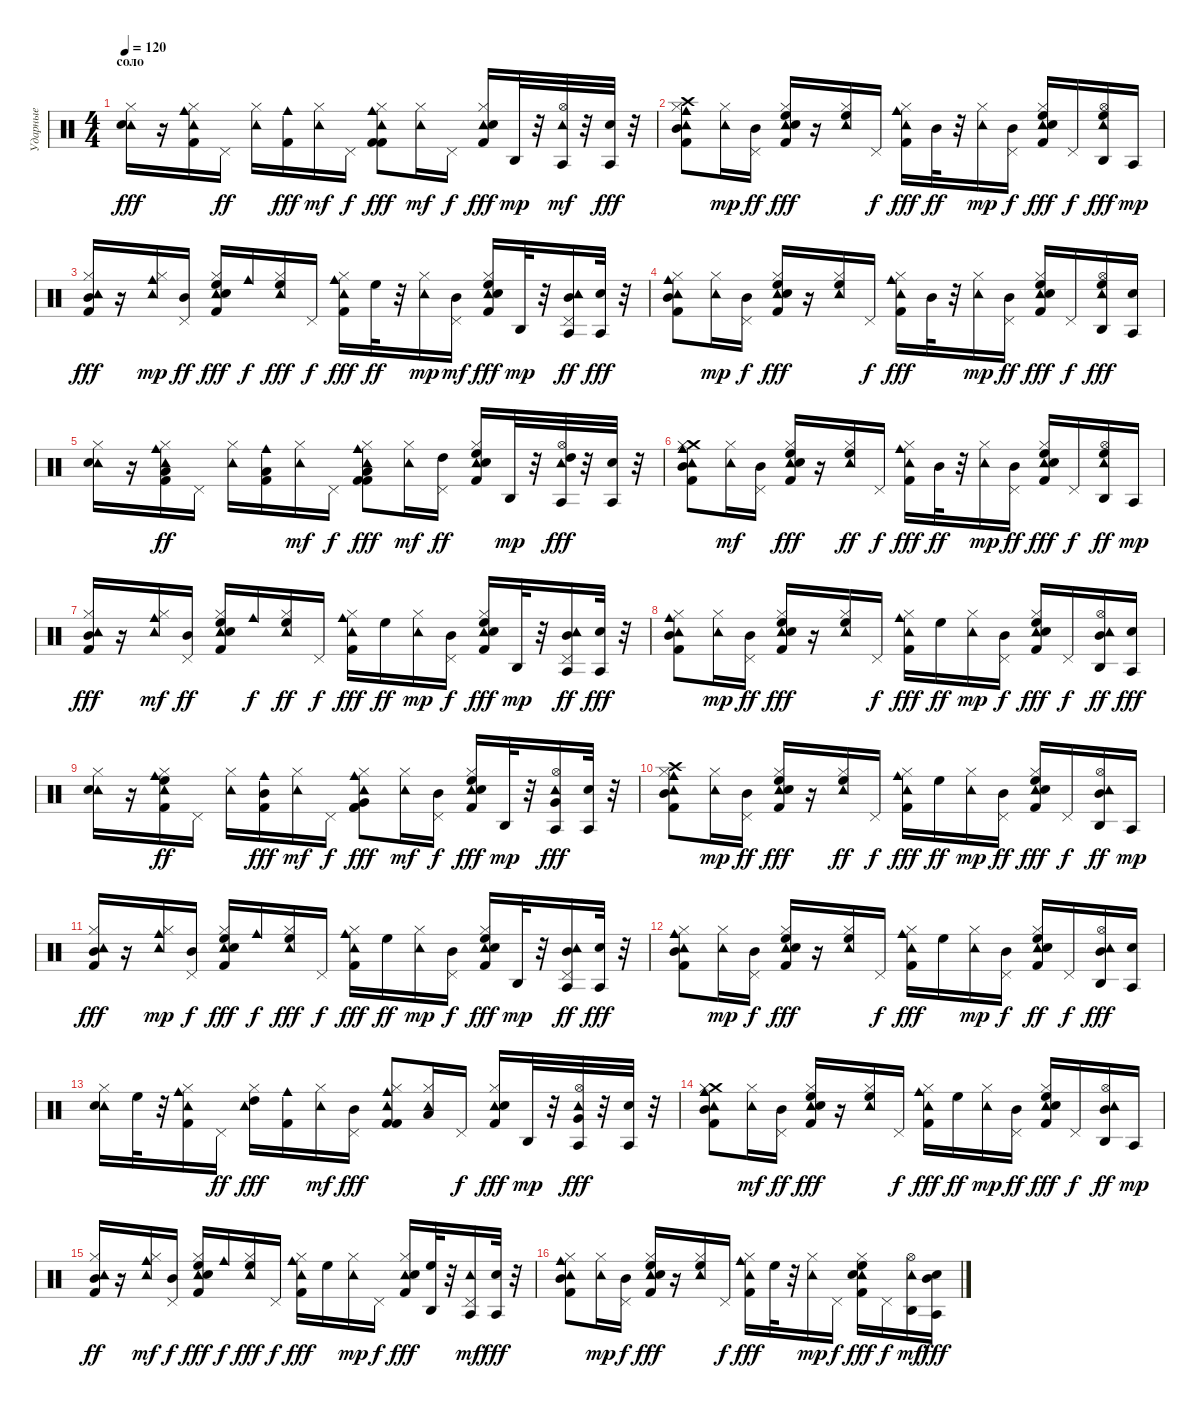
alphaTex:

\track ("Ударные" "Ударные") {instrument percussion}
\staff {score}
\articulation defaults
\ts (4 4)
\section ("" "соло")
\tempo 120
\clef neutral
\ks c
("Tambourine (hit)" "Electric Snare (hit)" "Hi-Hat (closed)").16{dy fff} r.16 ("Tambourine (hit)" "Cowbell medium (hit)" "Hi-Hat (closed)" "Kick (hit) 2").16 "Pedal Hi-Hat (hit)".16{dy ff} ("Tambourine (hit)" "Hi-Hat (closed)").16 ("Cowbell medium (hit)" "Kick (hit) 2").16{dy fff} ("Tambourine (hit)" "Hi-Hat (closed)").16{dy mf} "Pedal Hi-Hat (hit)".16{dy f} ("Tambourine (hit)" "Cowbell medium (hit)" "Kick (hit) 2" "Hi-Hat (closed)" "Kick (hit) 2").8{dy fff} ("Tambourine (hit)" "Hi-Hat (closed)").16{dy mf} "Pedal Hi-Hat (hit)".16{dy f} ("Tambourine (hit)" "Hi-Hat (closed)" "Kick (hit) 2" "Electric Snare (hit)").16{dy fff} "Agogo high (hit)".32{dy mp} r.32 ("Agogo tow (hit)" "Tambourine (hit)" "Hi-Hat (open)").32{dy mf} r.32 ("Agogo tow (hit)" "Electric Snare (hit)").32{dy fff} r.32 |
("Tambourine (hit)" "Cowbell medium (hit)" "Mid Tom (hit)" "Crash high (hit)" "Hi-Hat (closed)" "Kick (hit) 2").8 ("Tambourine (hit)" "Hi-Hat (closed)").16{dy mp} ("Pedal Hi-Hat (hit)" "Mid Tom (hit)").16{dy ff} ("Tambourine (hit)" "High Floor Tom (hit)" "Electric Snare (hit)" "Kick (hit) 2" "Hi-Hat (closed)").16{dy fff} r.16 ("Tambourine (hit)" "High Floor Tom (hit)" "Hi-Hat (closed)").16 "Pedal Hi-Hat (hit)".16{dy f} ("Tambourine (hit)" "Cowbell medium (hit)" "Kick (hit) 2" "Hi-Hat (closed)").16{dy fff} "Mid Tom (hit)".32{dy ff} r.32 ("Tambourine (hit)" "Hi-Hat (closed)").16{dy mp} ("Pedal Hi-Hat (hit)" "Mid Tom (hit)").16{dy f} ("Tambourine (hit)" "High Floor Tom (hit)" "Kick (hit) 2" "Electric Snare (hit)" "Hi-Hat (closed)").16{dy fff} "Pedal Hi-Hat (hit)".16{dy f} ("Agogo high (hit)" "Tambourine (hit)" "High Floor Tom (hit)" "Hi-Hat (open)").16{dy fff} "Agogo tow (hit)".16{dy mp} |
("Tambourine (hit)" "Mid Tom (hit)" "Kick (hit) 2" "Hi-Hat (closed)").16{dy fff} r.16 ("Cowbell medium (hit)" "Tambourine (hit)" "Hi-Hat (closed)").16{dy mp} ("Pedal Hi-Hat (hit)" "Mid Tom (hit)").16{dy ff} ("Tambourine (hit)" "Hi-Hat (closed)" "Kick (hit) 2" "Electric Snare (hit)" "High Floor Tom (hit)").16{dy fff} "Cowbell medium (hit)".16{dy f} ("Tambourine (hit)" "Hi-Hat (closed)" "High Floor Tom (hit)").16{dy fff} "Pedal Hi-Hat (hit)".16{dy f} ("Cowbell medium (hit)" "Tambourine (hit)" "Kick (hit) 2" "Hi-Hat (closed)").16{dy fff} "High Floor Tom (hit)".32{dy ff} r.32 ("Tambourine (hit)" "Hi-Hat (closed)").16{dy mp} ("Pedal Hi-Hat (hit)" "Mid Tom (hit)").16{dy mf} ("Tambourine (hit)" "Electric Snare (hit)" "Kick (hit) 2" "Hi-Hat (closed)" "High Floor Tom (hit)").16{dy fff} "Agogo high (hit)".32{dy mp} r.32 ("Agogo tow (hit)" "Tambourine (hit)" "Pedal Hi-Hat (hit)" "Mid Tom (hit)").16{dy ff} ("Agogo tow (hit)" "Electric Snare (hit)").32{dy fff} r.32 |
("Cowbell medium (hit)" "Tambourine (hit)" "Kick (hit) 2" "Hi-Hat (closed)" "Mid Tom (hit)").8 ("Tambourine (hit)" "Hi-Hat (closed)").16{dy mp} ("Mid Tom (hit)" "Pedal Hi-Hat (hit)").16{dy f} ("Tambourine (hit)" "High Floor Tom (hit)" "Electric Snare (hit)" "Kick (hit) 2" "Hi-Hat (closed)").16{dy fff} r.16 ("Tambourine (hit)" "Hi-Hat (closed)" "High Floor Tom (hit)").16 "Pedal Hi-Hat (hit)".16{dy f} ("Cowbell medium (hit)" "Tambourine (hit)" "Hi-Hat (closed)" "Kick (hit) 2").16{dy fff} "Mid Tom (hit)".32 r.32 ("Tambourine (hit)" "Hi-Hat (closed)").16{dy mp} ("Pedal Hi-Hat (hit)" "Mid Tom (hit)").16{dy ff} ("Tambourine (hit)" "Kick (hit) 2" "Electric Snare (hit)" "Hi-Hat (closed)" "High Floor Tom (hit)").16{dy fff} "Pedal Hi-Hat (hit)".16{dy f} ("Agogo high (hit)" "Tambourine (hit)" "Hi-Hat (open)" "High Floor Tom (hit)").16{dy fff} ("Agogo tow (hit)" "Electric Snare (hit)").16 |
("Tambourine (hit)" "Electric Snare (hit)" "Hi-Hat (closed)").16 r.16 ("Tambourine (hit)" "Cowbell medium (hit)" "Hi-Hat (closed)" "Kick (hit) 2" "Low Tom (hit)").16{dy ff} "Pedal Hi-Hat (hit)".16 ("Tambourine (hit)" "Hi-Hat (closed)").16 ("Cowbell medium (hit)" "Kick (hit) 2" "Low Tom (hit)").16 ("Tambourine (hit)" "Hi-Hat (closed)").16{dy mf} "Pedal Hi-Hat (hit)".16{dy f} ("Tambourine (hit)" "Cowbell medium (hit)" "Kick (hit) 2" "Hi-Hat (closed)" "Kick (hit) 2" "Low Tom (hit)").8{dy fff} ("Tambourine (hit)" "Hi-Hat (closed)").16{dy mf} ("Pedal Hi-Hat (hit)" "High Tom (hit)").16{dy ff} ("Tambourine (hit)" "Hi-Hat (closed)" "Kick (hit) 2" "Electric Snare (hit)" "High Floor Tom (hit)").16 "Agogo high (hit)".32{dy mp} r.32 ("Agogo tow (hit)" "Tambourine (hit)" "Hi-Hat (open)" "High Tom (hit)").32{dy fff} r.32 ("Agogo tow (hit)" "Electric Snare (hit)").32 r.32 |
("Tambourine (hit)" "Cowbell medium (hit)" "Mid Tom (hit)" "Crash medium (hit)" "Hi-Hat (closed)" "Kick (hit) 2").8 ("Tambourine (hit)" "Hi-Hat (closed)").16{dy mf} ("Mid Tom (hit)" "Pedal Hi-Hat (hit)").16 ("Tambourine (hit)" "High Floor Tom (hit)" "Electric Snare (hit)" "Kick (hit) 2" "Hi-Hat (closed)").16{dy fff} r.16 ("Tambourine (hit)" "High Floor Tom (hit)" "Hi-Hat (closed)").16{dy ff} "Pedal Hi-Hat (hit)".16{dy f} ("Tambourine (hit)" "Cowbell medium (hit)" "Kick (hit) 2" "Hi-Hat (closed)").16{dy fff} "Mid Tom (hit)".32{dy ff} r.32 ("Tambourine (hit)" "Hi-Hat (closed)").16{dy mp} ("Mid Tom (hit)" "Pedal Hi-Hat (hit)").16{dy ff} ("Tambourine (hit)" "High Floor Tom (hit)" "Kick (hit) 2" "Electric Snare (hit)" "Hi-Hat (closed)").16{dy fff} "Pedal Hi-Hat (hit)".16{dy f} ("Agogo high (hit)" "Tambourine (hit)" "Hi-Hat (open)" "High Floor Tom (hit)").16{dy ff} "Agogo tow (hit)".16{dy mp} |
("Tambourine (hit)" "Mid Tom (hit)" "Kick (hit) 2" "Hi-Hat (closed)").16{dy fff} r.16 ("Cowbell medium (hit)" "Tambourine (hit)" "Hi-Hat (closed)").16{dy mf} ("Pedal Hi-Hat (hit)" "Mid Tom (hit)").16{dy ff} ("Tambourine (hit)" "Hi-Hat (closed)" "Kick (hit) 2" "Electric Snare (hit)" "High Floor Tom (hit)").16 "Cowbell medium (hit)".16{dy f} ("Tambourine (hit)" "Hi-Hat (closed)" "High Floor Tom (hit)").16{dy ff} "Pedal Hi-Hat (hit)".16{dy f} ("Cowbell medium (hit)" "Tambourine (hit)" "Kick (hit) 2" "Hi-Hat (closed)").16{dy fff} "High Floor Tom (hit)".16{dy ff} ("Tambourine (hit)" "Hi-Hat (closed)").16{dy mp} ("Pedal Hi-Hat (hit)" "Mid Tom (hit)").16{dy f} ("Tambourine (hit)" "High Floor Tom (hit)" "Electric Snare (hit)" "Kick (hit) 2" "Hi-Hat (closed)").16{dy fff} "Agogo high (hit)".32{dy mp} r.32 ("Agogo tow (hit)" "Tambourine (hit)" "Mid Tom (hit)" "Pedal Hi-Hat (hit)").16{dy ff} ("Agogo tow (hit)" "Electric Snare (hit)").32{dy fff} r.32 |
("Tambourine (hit)" "Cowbell medium (hit)" "Mid Tom (hit)" "Kick (hit) 2" "Hi-Hat (closed)").8 ("Tambourine (hit)" "Hi-Hat (closed)").16{dy mp} ("Mid Tom (hit)" "Pedal Hi-Hat (hit)").16{dy ff} ("Tambourine (hit)" "High Floor Tom (hit)" "Electric Snare (hit)" "Kick (hit) 2" "Hi-Hat (closed)").16{dy fff} r.16 ("Tambourine (hit)" "High Floor Tom (hit)" "Hi-Hat (closed)").16 "Pedal Hi-Hat (hit)".16{dy f} ("Tambourine (hit)" "Cowbell medium (hit)" "Hi-Hat (closed)" "Kick (hit) 2").16{dy fff} "High Floor Tom (hit)".16{dy ff} ("Tambourine (hit)" "Hi-Hat (closed)").16{dy mp} ("Pedal Hi-Hat (hit)" "Mid Tom (hit)").16{dy f} ("Tambourine (hit)" "Kick (hit) 2" "Electric Snare (hit)" "Hi-Hat (closed)" "High Floor Tom (hit)").16{dy fff} "Pedal Hi-Hat (hit)".16{dy f} ("Agogo high (hit)" "Tambourine (hit)" "Hi-Hat (open)" "Mid Tom (hit)").16{dy ff} ("Agogo tow (hit)" "Electric Snare (hit)").16{dy fff} |
("Tambourine (hit)" "Electric Snare (hit)" "Hi-Hat (closed)").16 r.16 ("Tambourine (hit)" "Cowbell medium (hit)" "Hi-Hat (closed)" "Kick (hit) 2" "High Floor Tom (hit)").16{dy ff} "Pedal Hi-Hat (hit)".16 ("Tambourine (hit)" "Hi-Hat (closed)").16 ("Cowbell medium (hit)" "Kick (hit) 2" "Mid Tom (hit)").16{dy fff} ("Tambourine (hit)" "Hi-Hat (closed)").16{dy mf} "Pedal Hi-Hat (hit)".16{dy f} ("Tambourine (hit)" "Cowbell medium (hit)" "Kick (hit) 2" "Hi-Hat (closed)" "Kick (hit) 2" "Very Low Tom (hit)").8{dy fff} ("Tambourine (hit)" "Hi-Hat (closed)").16{dy mf} ("Mid Tom (hit)" "Pedal Hi-Hat (hit)").16{dy f} ("Tambourine (hit)" "High Floor Tom (hit)" "Hi-Hat (closed)" "Kick (hit) 2" "Electric Snare (hit)").16{dy fff} "Agogo high (hit)".32{dy mp} r.32 ("Agogo tow (hit)" "Tambourine (hit)" "Very Low Tom (hit)" "Hi-Hat (open)").16{dy fff} ("Agogo tow (hit)" "Electric Snare (hit)").32 r.32 |
("Tambourine (hit)" "Cowbell medium (hit)" "Mid Tom (hit)" "Crash high (hit)" "Hi-Hat (closed)" "Kick (hit) 2").8 ("Tambourine (hit)" "Hi-Hat (closed)").16{dy mp} ("Pedal Hi-Hat (hit)" "Mid Tom (hit)").16{dy ff} ("Tambourine (hit)" "High Floor Tom (hit)" "Electric Snare (hit)" "Kick (hit) 2" "Hi-Hat (closed)").16{dy fff} r.16 ("Tambourine (hit)" "High Floor Tom (hit)" "Hi-Hat (closed)").16{dy ff} "Pedal Hi-Hat (hit)".16{dy f} ("Tambourine (hit)" "Cowbell medium (hit)" "Kick (hit) 2" "Hi-Hat (closed)").16{dy fff} "High Floor Tom (hit)".16{dy ff} ("Tambourine (hit)" "Hi-Hat (closed)").16{dy mp} ("Pedal Hi-Hat (hit)" "Mid Tom (hit)").16{dy ff} ("Tambourine (hit)" "Kick (hit) 2" "Electric Snare (hit)" "Hi-Hat (closed)" "High Floor Tom (hit)").16{dy fff} "Pedal Hi-Hat (hit)".16{dy f} ("Agogo high (hit)" "Tambourine (hit)" "Hi-Hat (open)" "Mid Tom (hit)").16{dy ff} "Agogo tow (hit)".16{dy mp} |
("Tambourine (hit)" "Mid Tom (hit)" "Kick (hit) 2" "Hi-Hat (closed)").16{dy fff} r.16 ("Cowbell medium (hit)" "Tambourine (hit)" "Hi-Hat (closed)").16{dy mp} ("Mid Tom (hit)" "Pedal Hi-Hat (hit)").16{dy f} ("Tambourine (hit)" "High Floor Tom (hit)" "Hi-Hat (closed)" "Kick (hit) 2" "Electric Snare (hit)").16{dy fff} "Cowbell medium (hit)".16{dy f} ("Tambourine (hit)" "Hi-Hat (closed)" "High Floor Tom (hit)").16{dy fff} "Pedal Hi-Hat (hit)".16{dy f} ("Cowbell medium (hit)" "Tambourine (hit)" "Kick (hit) 2" "Hi-Hat (closed)").16{dy fff} "High Floor Tom (hit)".16{dy ff} ("Tambourine (hit)" "Hi-Hat (closed)").16{dy mp} ("Pedal Hi-Hat (hit)" "Mid Tom (hit)").16{dy f} ("Tambourine (hit)" "Electric Snare (hit)" "Kick (hit) 2" "Hi-Hat (closed)" "High Floor Tom (hit)").16{dy fff} "Agogo high (hit)".32{dy mp} r.32 ("Agogo tow (hit)" "Tambourine (hit)" "Pedal Hi-Hat (hit)" "Mid Tom (hit)").16{dy ff} ("Agogo tow (hit)" "Electric Snare (hit)").32{dy fff} r.32 |
("Cowbell medium (hit)" "Tambourine (hit)" "Kick (hit) 2" "Hi-Hat (closed)" "Mid Tom (hit)").8 ("Tambourine (hit)" "Hi-Hat (closed)").16{dy mp} ("Mid Tom (hit)" "Pedal Hi-Hat (hit)").16{dy f} ("Tambourine (hit)" "High Floor Tom (hit)" "Electric Snare (hit)" "Kick (hit) 2" "Hi-Hat (closed)").16{dy fff} r.16 ("Tambourine (hit)" "Hi-Hat (closed)" "High Floor Tom (hit)").16 "Pedal Hi-Hat (hit)".16{dy f} ("Cowbell medium (hit)" "Tambourine (hit)" "Hi-Hat (closed)" "Kick (hit) 2").16{dy fff} "High Floor Tom (hit)".16 ("Tambourine (hit)" "Hi-Hat (closed)").16{dy mp} ("Pedal Hi-Hat (hit)" "Mid Tom (hit)").16{dy f} ("Tambourine (hit)" "Kick (hit) 2" "Electric Snare (hit)" "Hi-Hat (closed)" "High Floor Tom (hit)").16{dy ff} "Pedal Hi-Hat (hit)".16{dy f} ("Agogo high (hit)" "Tambourine (hit)" "Hi-Hat (open)" "Mid Tom (hit)").16{dy fff} ("Agogo tow (hit)" "Electric Snare (hit)").16 |
("Tambourine (hit)" "Electric Snare (hit)" "Hi-Hat (closed)").16 "High Floor Tom (hit)".32 r.32 ("Tambourine (hit)" "Cowbell medium (hit)" "Hi-Hat (closed)" "Kick (hit) 2").16 "Pedal Hi-Hat (hit)".16{dy ff} ("Tambourine (hit)" "High Tom (hit)" "Hi-Hat (closed)").16{dy fff} ("Cowbell medium (hit)" "Kick (hit) 2").16 ("Tambourine (hit)" "Hi-Hat (closed)").16{dy mf} ("Mid Tom (hit)" "Pedal Hi-Hat (hit)").16{dy fff} ("Tambourine (hit)" "Cowbell medium (hit)" "Kick (hit) 2" "Hi-Hat (closed)" "Kick (hit) 2").8 ("Tambourine (hit)" "Hi-Hat (closed)" "Low Tom (hit)").16 "Pedal Hi-Hat (hit)".16{dy f} ("Tambourine (hit)" "Hi-Hat (closed)" "Kick (hit) 2" "Electric Snare (hit)").16{dy fff} "Agogo high (hit)".32{dy mp} r.32 ("Agogo tow (hit)" "Tambourine (hit)" "Very Low Tom (hit)" "Hi-Hat (open)").32{dy fff} r.32 ("Agogo tow (hit)" "Electric Snare (hit)").32 r.32 |
("Tambourine (hit)" "Cowbell medium (hit)" "Mid Tom (hit)" "Crash medium (hit)" "Hi-Hat (closed)" "Kick (hit) 2").8 ("Tambourine (hit)" "Hi-Hat (closed)").16{dy mf} ("Pedal Hi-Hat (hit)" "Mid Tom (hit)").16{dy ff} ("Tambourine (hit)" "High Floor Tom (hit)" "Electric Snare (hit)" "Kick (hit) 2" "Hi-Hat (closed)").16{dy fff} r.16 ("Tambourine (hit)" "High Floor Tom (hit)" "Hi-Hat (closed)").16 "Pedal Hi-Hat (hit)".16{dy f} ("Tambourine (hit)" "Cowbell medium (hit)" "Kick (hit) 2" "Hi-Hat (closed)").16{dy fff} "High Floor Tom (hit)".16{dy ff} ("Tambourine (hit)" "Hi-Hat (closed)").16{dy mp} ("Pedal Hi-Hat (hit)" "Mid Tom (hit)").16{dy ff} ("Tambourine (hit)" "Kick (hit) 2" "Electric Snare (hit)" "Hi-Hat (closed)" "High Floor Tom (hit)").16{dy fff} "Pedal Hi-Hat (hit)".16{dy f} ("Agogo high (hit)" "Tambourine (hit)" "Hi-Hat (open)" "Mid Tom (hit)").16{dy ff} "Agogo tow (hit)".16{dy mp} |
("Tambourine (hit)" "Kick (hit) 2" "Hi-Hat (closed)" "Mid Tom (hit)").16{dy ff} r.16 ("Cowbell medium (hit)" "Tambourine (hit)" "Hi-Hat (closed)").16{dy mf} ("Pedal Hi-Hat (hit)" "Mid Tom (hit)").16{dy f} ("Tambourine (hit)" "Hi-Hat (closed)" "Kick (hit) 2" "Electric Snare (hit)" "High Floor Tom (hit)").16{dy fff} "Cowbell medium (hit)".16{dy f} ("Tambourine (hit)" "Hi-Hat (closed)" "High Floor Tom (hit)").16{dy fff} "Pedal Hi-Hat (hit)".16{dy f} ("Cowbell medium (hit)" "Tambourine (hit)" "Kick (hit) 2" "Hi-Hat (closed)").16{dy fff} "High Floor Tom (hit)".16 ("Tambourine (hit)" "Hi-Hat (closed)").16{dy mp} "Pedal Hi-Hat (hit)".16{dy f} ("Tambourine (hit)" "Electric Snare (hit)" "Kick (hit) 2" "Hi-Hat (closed)").16{dy fff} ("Agogo high (hit)" "High Floor Tom (hit)").32 r.32 ("Agogo tow (hit)" "Tambourine (hit)" "Pedal Hi-Hat (hit)").16{dy mf} ("Agogo tow (hit)" "Electric Snare (hit)").32{dy fff} r.32 |
("Tambourine (hit)" "Cowbell medium (hit)" "Kick (hit) 2" "Hi-Hat (closed)" "Mid Tom (hit)").8 ("Tambourine (hit)" "Hi-Hat (closed)").16{dy mp} ("Mid Tom (hit)" "Pedal Hi-Hat (hit)").16{dy f} ("Tambourine (hit)" "High Floor Tom (hit)" "Electric Snare (hit)" "Kick (hit) 2" "Hi-Hat (closed)").16{dy fff} r.16 ("Tambourine (hit)" "High Floor Tom (hit)" "Hi-Hat (closed)").16 "Pedal Hi-Hat (hit)".16{dy f} ("Tambourine (hit)" "Cowbell medium (hit)" "Hi-Hat (closed)" "Kick (hit) 2").16{dy fff} "High Floor Tom (hit)".32 r.32 ("Tambourine (hit)" "Hi-Hat (closed)").16{dy mp} "Pedal Hi-Hat (hit)".16{dy f} ("Tambourine (hit)" "High Floor Tom (hit)" "Kick (hit) 2" "Electric Snare (hit)" "Hi-Hat (closed)").16{dy fff} "Pedal Hi-Hat (hit)".16{dy f} ("Agogo high (hit)" "Tambourine (hit)" "Hi-Hat (open)").16{dy mf} ("Agogo tow (hit)" "Electric Snare (hit)" "Mid Tom (hit)").16{dy fff}
